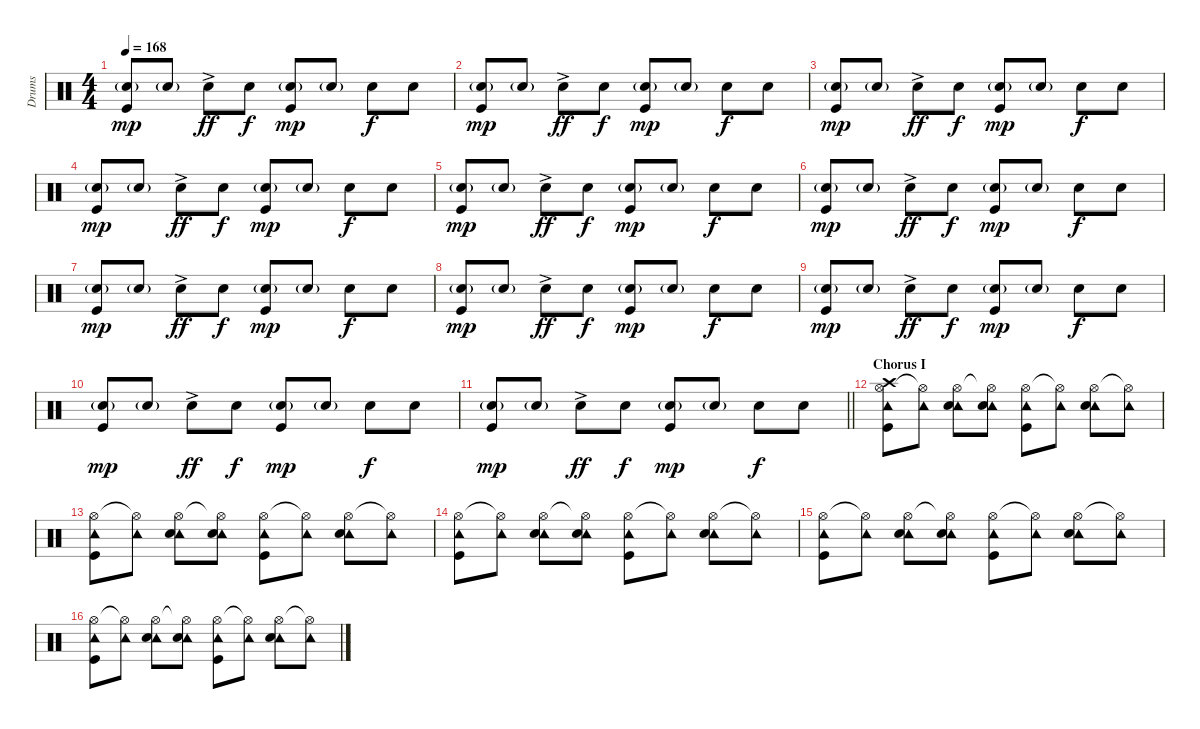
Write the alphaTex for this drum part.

\track ("Drums" "Drums") {instrument percussion}
\staff {score}
\articulation defaults
\ts (4 4)
\tempo 168
\clef neutral
\ks c
("Snare (hit) 2"{g} "Kick (hit)").8{dy mp} "Snare (hit) 2"{g}.8 "Snare (hit) 2"{ac}.8{dy ff} "Snare (hit) 2".8{dy f} ("Snare (hit) 2"{g} "Kick (hit)").8{dy mp} "Snare (hit) 2"{g}.8 "Snare (hit) 2".8{dy f} "Snare (hit) 2".8 |
("Snare (hit) 2"{g} "Kick (hit)").8{dy mp} "Snare (hit) 2"{g}.8 "Snare (hit) 2"{ac}.8{dy ff} "Snare (hit) 2".8{dy f} ("Snare (hit) 2"{g} "Kick (hit)").8{dy mp} "Snare (hit) 2"{g}.8 "Snare (hit) 2".8{dy f} "Snare (hit) 2".8 |
("Snare (hit) 2"{g} "Kick (hit)").8{dy mp} "Snare (hit) 2"{g}.8 "Snare (hit) 2"{ac}.8{dy ff} "Snare (hit) 2".8{dy f} ("Snare (hit) 2"{g} "Kick (hit)").8{dy mp} "Snare (hit) 2"{g}.8 "Snare (hit) 2".8{dy f} "Snare (hit) 2".8 |
("Snare (hit) 2"{g} "Kick (hit)").8{dy mp} "Snare (hit) 2"{g}.8 "Snare (hit) 2"{ac}.8{dy ff} "Snare (hit) 2".8{dy f} ("Snare (hit) 2"{g} "Kick (hit)").8{dy mp} "Snare (hit) 2"{g}.8 "Snare (hit) 2".8{dy f} "Snare (hit) 2".8 |
("Snare (hit) 2"{g} "Kick (hit)").8{dy mp} "Snare (hit) 2"{g}.8 "Snare (hit) 2"{ac}.8{dy ff} "Snare (hit) 2".8{dy f} ("Snare (hit) 2"{g} "Kick (hit)").8{dy mp} "Snare (hit) 2"{g}.8 "Snare (hit) 2".8{dy f} "Snare (hit) 2".8 |
("Snare (hit) 2"{g} "Kick (hit)").8{dy mp} "Snare (hit) 2"{g}.8 "Snare (hit) 2"{ac}.8{dy ff} "Snare (hit) 2".8{dy f} ("Snare (hit) 2"{g} "Kick (hit)").8{dy mp} "Snare (hit) 2"{g}.8 "Snare (hit) 2".8{dy f} "Snare (hit) 2".8 |
("Snare (hit) 2"{g} "Kick (hit)").8{dy mp} "Snare (hit) 2"{g}.8 "Snare (hit) 2"{ac}.8{dy ff} "Snare (hit) 2".8{dy f} ("Snare (hit) 2"{g} "Kick (hit)").8{dy mp} "Snare (hit) 2"{g}.8 "Snare (hit) 2".8{dy f} "Snare (hit) 2".8 |
("Snare (hit) 2"{g} "Kick (hit)").8{dy mp} "Snare (hit) 2"{g}.8 "Snare (hit) 2"{ac}.8{dy ff} "Snare (hit) 2".8{dy f} ("Snare (hit) 2"{g} "Kick (hit)").8{dy mp} "Snare (hit) 2"{g}.8 "Snare (hit) 2".8{dy f} "Snare (hit) 2".8 |
("Snare (hit) 2"{g} "Kick (hit)").8{dy mp} "Snare (hit) 2"{g}.8 "Snare (hit) 2"{ac}.8{dy ff} "Snare (hit) 2".8{dy f} ("Snare (hit) 2"{g} "Kick (hit)").8{dy mp} "Snare (hit) 2"{g}.8 "Snare (hit) 2".8{dy f} "Snare (hit) 2".8 |
("Snare (hit) 2"{g} "Kick (hit)").8{dy mp} "Snare (hit) 2"{g}.8 "Snare (hit) 2"{ac}.8{dy ff} "Snare (hit) 2".8{dy f} ("Snare (hit) 2"{g} "Kick (hit)").8{dy mp} "Snare (hit) 2"{g}.8 "Snare (hit) 2".8{dy f} "Snare (hit) 2".8 |
\barLineRight lightlight
("Snare (hit) 2"{g} "Kick (hit)").8{dy mp} "Snare (hit) 2"{g}.8 "Snare (hit) 2"{ac}.8{dy ff} "Snare (hit) 2".8{dy f} ("Snare (hit) 2"{g} "Kick (hit)").8{dy mp} "Snare (hit) 2"{g}.8 "Snare (hit) 2".8{dy f} "Snare (hit) 2".8 |
\section ("" "Chorus I")
("Hi-Hat (open)" "Tambourine (hit)" "Crash high (hit)" "Kick (hit)").8 ("Hi-Hat (open)"{t} "Tambourine (hit)").8 ("Hi-Hat (open)" "Tambourine (hit)" "Snare (hit) 2").8 ("Hi-Hat (open)"{t} "Tambourine (hit)" "Snare (hit) 2").8 ("Hi-Hat (open)" "Tambourine (hit)" "Kick (hit)").8 ("Hi-Hat (open)"{t} "Tambourine (hit)").8 ("Hi-Hat (open)" "Tambourine (hit)" "Snare (hit) 2").8 ("Hi-Hat (open)"{t} "Tambourine (hit)").8 |
("Hi-Hat (open)" "Tambourine (hit)" "Kick (hit)").8 ("Hi-Hat (open)"{t} "Tambourine (hit)").8 ("Hi-Hat (open)" "Tambourine (hit)" "Snare (hit) 2").8 ("Hi-Hat (open)"{t} "Tambourine (hit)" "Snare (hit) 2").8 ("Hi-Hat (open)" "Tambourine (hit)" "Kick (hit)").8 ("Hi-Hat (open)"{t} "Tambourine (hit)").8 ("Hi-Hat (open)" "Tambourine (hit)" "Snare (hit) 2").8 ("Hi-Hat (open)"{t} "Tambourine (hit)").8 |
("Hi-Hat (open)" "Tambourine (hit)" "Kick (hit)").8 ("Hi-Hat (open)"{t} "Tambourine (hit)").8 ("Hi-Hat (open)" "Tambourine (hit)" "Snare (hit) 2").8 ("Hi-Hat (open)"{t} "Tambourine (hit)" "Snare (hit) 2").8 ("Hi-Hat (open)" "Tambourine (hit)" "Kick (hit)").8 ("Hi-Hat (open)"{t} "Tambourine (hit)").8 ("Hi-Hat (open)" "Tambourine (hit)" "Snare (hit) 2").8 ("Hi-Hat (open)"{t} "Tambourine (hit)").8 |
("Hi-Hat (open)" "Tambourine (hit)" "Kick (hit)").8 ("Hi-Hat (open)"{t} "Tambourine (hit)").8 ("Hi-Hat (open)" "Tambourine (hit)" "Snare (hit) 2").8 ("Hi-Hat (open)"{t} "Tambourine (hit)" "Snare (hit) 2").8 ("Hi-Hat (open)" "Tambourine (hit)" "Kick (hit)").8 ("Hi-Hat (open)"{t} "Tambourine (hit)").8 ("Hi-Hat (open)" "Tambourine (hit)" "Snare (hit) 2").8 ("Hi-Hat (open)"{t} "Tambourine (hit)").8 |
("Hi-Hat (open)" "Tambourine (hit)" "Kick (hit)").8 ("Hi-Hat (open)"{t} "Tambourine (hit)").8 ("Hi-Hat (open)" "Tambourine (hit)" "Snare (hit) 2").8 ("Hi-Hat (open)"{t} "Tambourine (hit)" "Snare (hit) 2").8 ("Hi-Hat (open)" "Tambourine (hit)" "Kick (hit)").8 ("Hi-Hat (open)"{t} "Tambourine (hit)").8 ("Hi-Hat (open)" "Tambourine (hit)" "Snare (hit) 2").8 ("Hi-Hat (open)"{t} "Tambourine (hit)").8
